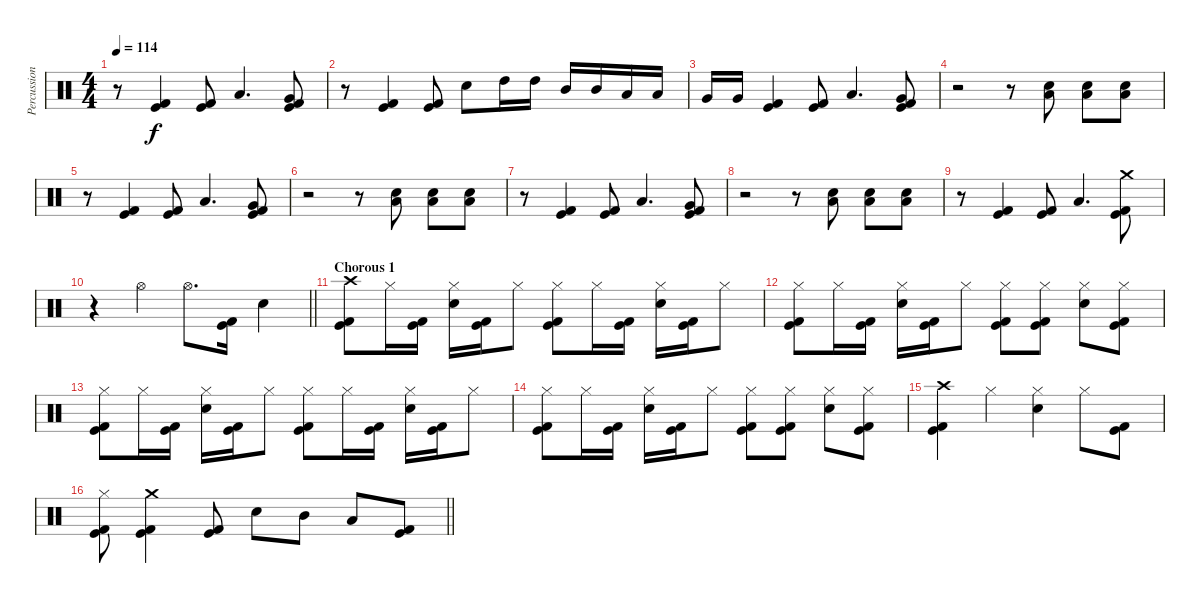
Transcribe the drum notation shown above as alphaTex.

\track ("Percussion" "Percussion") {instrument percussion}
\staff {score}
\articulation defaults
\ts (4 4)
\section ("" "")
\tempo 114
\clef neutral
\ks c
r.8{dy f} ("Kick (hit)" "Kick (hit) 2").4 ("Kick (hit)" "Kick (hit) 2").8 "Low Tom (hit)".4{d} ("Very Low Tom (hit)" "Kick (hit)" "Kick (hit) 2").8 |
r.8 ("Kick (hit)" "Kick (hit) 2").4 ("Kick (hit)" "Kick (hit) 2").8 "Electric Snare (hit)".8 "High Tom (hit)".16 "High Tom (hit)".16 "Mid Tom (hit)".16 "Mid Tom (hit)".16 "Low Tom (hit)".16 "Low Tom (hit)".16 |
"Very Low Tom (hit)".16 "Very Low Tom (hit)".16 ("Kick (hit)" "Kick (hit) 2").4 ("Kick (hit)" "Kick (hit) 2").8 "Low Tom (hit)".4{d} ("Very Low Tom (hit)" "Kick (hit)" "Kick (hit) 2").8 |
r.2 r.8 ("Electric Snare (hit)" "Low Floor Tom (hit)").8 ("Electric Snare (hit)" "Low Floor Tom (hit)").8 ("Electric Snare (hit)" "Low Floor Tom (hit)").8 |
r.8 ("Kick (hit)" "Kick (hit) 2").4 ("Kick (hit)" "Kick (hit) 2").8 "Low Tom (hit)".4{d} ("Very Low Tom (hit)" "Kick (hit)" "Kick (hit) 2").8 |
r.2 r.8 ("Electric Snare (hit)" "Low Floor Tom (hit)").8 ("Electric Snare (hit)" "Low Floor Tom (hit)").8 ("Electric Snare (hit)" "Low Floor Tom (hit)").8 |
r.8 ("Kick (hit)" "Kick (hit) 2").4 ("Kick (hit)" "Kick (hit) 2").8 "Low Tom (hit)".4{d} ("Very Low Tom (hit)" "Kick (hit)" "Kick (hit) 2").8 |
r.2 r.8 ("Electric Snare (hit)" "Low Floor Tom (hit)").8 ("Electric Snare (hit)" "Low Floor Tom (hit)").8 ("Electric Snare (hit)" "Low Floor Tom (hit)").8 |
r.8 ("Kick (hit)" "Kick (hit) 2").4 ("Kick (hit)" "Kick (hit) 2").8 "Low Tom (hit)".4{d} ("Crash medium (hit)" "Kick (hit)" "Kick (hit) 2").8 |
\barLineRight lightlight
r.4 "Hi-Hat (open)".4 "Hi-Hat (open)".8{d} ("Kick (hit)" "Kick (hit) 2").16 "Electric Snare (hit)".4 |
\section ("" "Chorous 1")
("Crash high (hit)" "Kick (hit)" "Kick (hit) 2").8 "Hi-Hat (closed)".16 ("Kick (hit)" "Kick (hit) 2").16 ("Hi-Hat (closed)" "Electric Snare (hit)").16 ("Kick (hit)" "Kick (hit) 2").16 "Hi-Hat (closed)".8 ("Hi-Hat (closed)" "Kick (hit)" "Kick (hit) 2").8 "Hi-Hat (closed)".16 ("Kick (hit)" "Kick (hit) 2").16 ("Hi-Hat (closed)" "Electric Snare (hit)").16 ("Kick (hit)" "Kick (hit) 2").16 "Hi-Hat (closed)".8 |
("Hi-Hat (closed)" "Kick (hit)" "Kick (hit) 2").8 "Hi-Hat (closed)".16 ("Kick (hit)" "Kick (hit) 2").16 ("Hi-Hat (closed)" "Electric Snare (hit)").16 ("Kick (hit)" "Kick (hit) 2").16 "Hi-Hat (closed)".8 ("Hi-Hat (closed)" "Kick (hit)" "Kick (hit) 2").8 ("Hi-Hat (closed)" "Kick (hit)" "Kick (hit) 2").8 ("Hi-Hat (closed)" "Electric Snare (hit)").8 ("Hi-Hat (closed)" "Kick (hit)" "Kick (hit) 2").8 |
("Hi-Hat (closed)" "Kick (hit)" "Kick (hit) 2").8 "Hi-Hat (closed)".16 ("Kick (hit)" "Kick (hit) 2").16 ("Hi-Hat (closed)" "Electric Snare (hit)").16 ("Kick (hit)" "Kick (hit) 2").16 "Hi-Hat (closed)".8 ("Hi-Hat (closed)" "Kick (hit)" "Kick (hit) 2").8 "Hi-Hat (closed)".16 ("Kick (hit)" "Kick (hit) 2").16 ("Hi-Hat (closed)" "Electric Snare (hit)").16 ("Kick (hit)" "Kick (hit) 2").16 "Hi-Hat (closed)".8 |
("Hi-Hat (closed)" "Kick (hit)" "Kick (hit) 2").8 "Hi-Hat (closed)".16 ("Kick (hit)" "Kick (hit) 2").16 ("Hi-Hat (closed)" "Electric Snare (hit)").16 ("Kick (hit)" "Kick (hit) 2").16 "Hi-Hat (closed)".8 ("Hi-Hat (closed)" "Kick (hit)" "Kick (hit) 2").8 ("Hi-Hat (closed)" "Kick (hit)" "Kick (hit) 2").8 ("Hi-Hat (closed)" "Electric Snare (hit)").8 ("Hi-Hat (closed)" "Kick (hit)" "Kick (hit) 2").8 |
("Crash high (hit)" "Kick (hit)" "Kick (hit) 2").4 "Hi-Hat (closed)".4 ("Hi-Hat (closed)" "Electric Snare (hit)").4 "Hi-Hat (closed)".8 ("Kick (hit)" "Kick (hit) 2").8 |
\barLineRight lightlight
("Hi-Hat (closed)" "Kick (hit)" "Kick (hit) 2").8 ("Crash medium (hit)" "Kick (hit)" "Kick (hit) 2").4 ("Kick (hit)" "Kick (hit) 2").8 "Electric Snare (hit)".8 "Mid Tom (hit)".8 "Low Tom (hit)".8 ("Kick (hit)" "Kick (hit) 2").8
